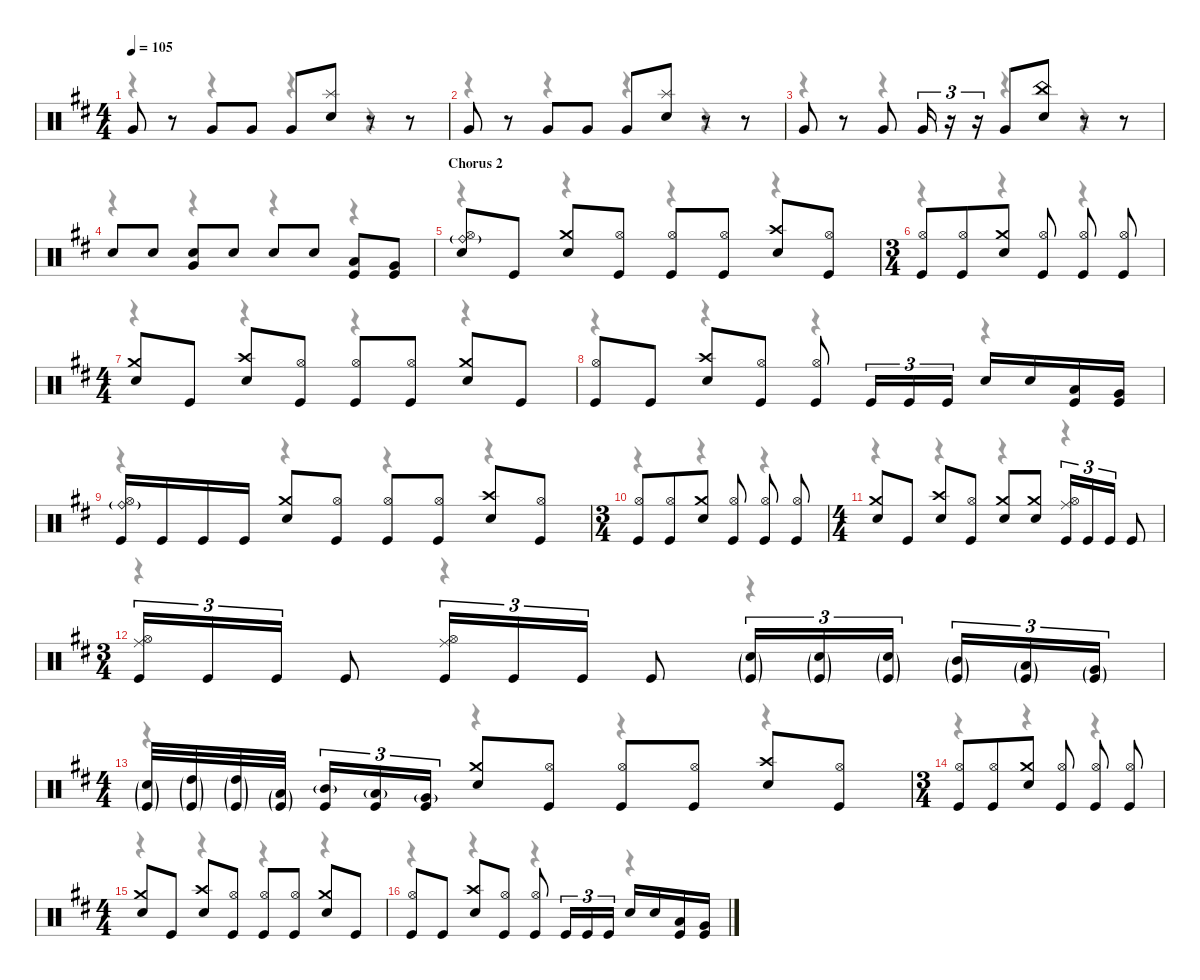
\defaultSystemsLayout 4
\hideDynamics
\bracketExtendMode nobrackets
\singleTrackTrackNamePolicy hidden
\multiTrackTrackNamePolicy hidden
\firstSystemTrackNameMode fullname
\firstSystemTrackNameOrientation horizontal
\otherSystemsTrackNameOrientation horizontal
\track ("Drums" "drm.") {instrument percussion}
\staff {score}
\articulation defaults
\voice
\ts (4 4)
\tempo 105
\clef neutral
\ks bminor "Very Low Tom (hit)"{acc forcenatural}.8{dy f beam Up}
r.8{beam Up} "Very Low Tom (hit)"{acc forcenatural}.8{beam Up} "Very Low Tom (hit)"{acc forcenatural}.8{dy mp beam Up} "Very Low Tom (hit)"{acc forcenatural}.8{dy f beam Up} ("Splash (hit)"{acc forcenatural} "Snare (hit) 2"{acc forcenatural}).8{beam Up} r.8{beam Up} r.8{beam Up} |
"Very Low Tom (hit)"{acc forcenatural}.8{beam Up} r.8{beam Up} "Very Low Tom (hit)"{acc forcenatural}.8{beam Up} "Very Low Tom (hit)"{acc forcenatural}.8{dy mp beam Up} "Very Low Tom (hit)"{acc forcenatural}.8{dy f beam Up} ("Splash (hit)"{acc forcenatural} "Snare (hit) 2"{acc forcenatural}).8{beam Up} r.8{beam Up} r.8{beam Up} |
"Very Low Tom (hit)"{acc forcenatural}.8{beam Up} r.8{beam Up} "Very Low Tom (hit)"{acc forcenatural}.8{beam Up} "Very Low Tom (hit)"{acc forcenatural}.16{tu (3 2) dy mp beam Up} r.16{tu (3 2) beam Up} r.16{tu (3 2) beam Up} "Very Low Tom (hit)"{acc forcenatural}.8{dy f beam Up} ("China (hit)"{acc forcenatural} "Snare (hit) 2"{acc forcenatural}).8{beam Up} r.8{beam Up} r.8{beam Up} |
"Snare (hit) 2"{acc forcenatural}.8{dy p beam Up} "Snare (hit) 2"{acc forcenatural}.8{dy mp beam Up} ("Snare (hit) 2"{acc forcenatural} "Very Low Tom (hit)"{acc forcenatural}).8{beam Up} "Snare (hit) 2"{acc forcenatural}.8{dy mf beam Up} "Snare (hit) 2"{acc forcenatural}.8{beam Up} "Snare (hit) 2"{acc forcenatural}.8{dy f beam Up} ("Low Tom (hit)"{acc forcenatural} "Kick (hit)"{acc forcenatural}).8{beam Up} ("Very Low Tom (hit)"{acc forcenatural} "Kick (hit)"{acc forcenatural}).8{beam Up} |
\section ("" "Chorus 2")
("Ride (bell)"{g acc forcenatural} "Hi-Hat (open)"{acc forcenatural} "Snare (hit) 2"{acc forcenatural}).8{dy mp beam Up} "Kick (hit)"{acc forcenatural}.8{dy f beam Up} ("Crash medium (hit)"{acc forcenatural} "Snare (hit) 2"{acc forcenatural}).8{dy mp beam Up} ("Hi-Hat (open)"{acc forcenatural} "Kick (hit)"{acc forcenatural}).8{dy pp beam Up} ("Hi-Hat (open)"{acc forcenatural} "Kick (hit)"{acc forcenatural}).8{dy mp beam Up} ("Hi-Hat (open)"{acc forcenatural} "Kick (hit)"{acc forcenatural}).8{dy pp beam Up} ("Crash high (hit)"{acc forcenatural} "Snare (hit) 2"{acc forcenatural}).8{dy mp beam Up} ("Hi-Hat (open)"{acc forcenatural} "Kick (hit)"{acc forcenatural}).8{dy pp beam Up} |
\ts (3 4)
\beaming (8 3 1 1 1)
("Hi-Hat (open)"{acc forcenatural} "Kick (hit)"{acc forcenatural}).8{dy mp beam Up} ("Hi-Hat (open)"{acc forcenatural} "Kick (hit)"{acc forcenatural}).8{dy pp beam Up} ("Crash medium (hit)"{acc forcenatural} "Snare (hit) 2"{acc forcenatural}).8{dy mp beam Up} ("Hi-Hat (open)"{acc forcenatural} "Kick (hit)"{acc forcenatural}).8{dy pp beam Up} ("Hi-Hat (open)"{acc forcenatural} "Kick (hit)"{acc forcenatural}).8{dy mp beam Up} ("Hi-Hat (open)"{acc forcenatural} "Kick (hit)"{acc forcenatural}).8{dy pp beam Up} |
\ts (4 4)
\beaming (8 2 2 2 2)
("Crash medium (hit)"{acc forcenatural} "Snare (hit) 2"{acc forcenatural}).8{dy mp beam Up} "Kick (hit)"{acc forcenatural}.8{dy f beam Up} ("Crash high (hit)"{acc forcenatural} "Snare (hit) 2"{acc forcenatural}).8{dy mp beam Up} ("Hi-Hat (open)"{acc forcenatural} "Kick (hit)"{acc forcenatural}).8{dy pp beam Up} ("Hi-Hat (open)"{acc forcenatural} "Kick (hit)"{acc forcenatural}).8{dy mp beam Up} ("Hi-Hat (open)"{acc forcenatural} "Kick (hit)"{acc forcenatural}).8{dy pp beam Up} ("Crash medium (hit)"{acc forcenatural} "Snare (hit) 2"{acc forcenatural}).8{dy mp beam Up} "Kick (hit)"{acc forcenatural}.8{dy f beam Up} |
("Hi-Hat (open)"{acc forcenatural} "Kick (hit)"{acc forcenatural}).8{dy mp beam Up} "Kick (hit)"{acc forcenatural}.8{dy f beam Up} ("Crash high (hit)"{acc forcenatural} "Snare (hit) 2"{acc forcenatural}).8{dy mp beam Up} ("Hi-Hat (open)"{acc forcenatural} "Kick (hit)"{acc forcenatural}).8{dy pp beam Up} ("Hi-Hat (open)"{acc forcenatural} "Kick (hit)"{acc forcenatural}).8{dy mp beam Up} "Kick (hit)"{acc forcenatural}.16{tu (3 2) dy f beam Up} "Kick (hit)"{acc forcenatural}.16{tu (3 2) beam Up} "Kick (hit)"{acc forcenatural}.16{tu (3 2) beam Up} "Snare (hit) 2"{acc forcenatural}.16{beam Up} "Snare (hit) 2"{acc forcenatural}.16{beam Up} ("Low Tom (hit)"{acc forcenatural} "Kick (hit)"{acc forcenatural}).16{dy mp beam Up} ("Very Low Tom (hit)"{acc forcenatural} "Kick (hit)"{acc forcenatural}).16{beam Up} |
("Ride (bell)"{g acc forcenatural} "Hi-Hat (open)"{acc forcenatural} "Kick (hit)"{acc forcenatural}).16{beam Up} "Kick (hit)"{acc forcenatural}.16{dy f beam Up} "Kick (hit)"{acc forcenatural}.16{beam Up} "Kick (hit)"{acc forcenatural}.16{beam Up} ("Crash medium (hit)"{acc forcenatural} "Snare (hit) 2"{acc forcenatural}).8{dy mp beam Up} ("Hi-Hat (open)"{acc forcenatural} "Kick (hit)"{acc forcenatural}).8{dy pp beam Up} ("Hi-Hat (open)"{acc forcenatural} "Kick (hit)"{acc forcenatural}).8{dy mp beam Up} ("Hi-Hat (open)"{acc forcenatural} "Kick (hit)"{acc forcenatural}).8{dy pp beam Up} ("Crash high (hit)"{acc forcenatural} "Snare (hit) 2"{acc forcenatural}).8{dy mp beam Up} ("Hi-Hat (open)"{acc forcenatural} "Kick (hit)"{acc forcenatural}).8{dy pp beam Up} |
\ts (3 4)
\beaming (8 3 1 1 1)
("Hi-Hat (open)"{acc forcenatural} "Kick (hit)"{acc forcenatural}).8{dy mp beam Up} ("Hi-Hat (open)"{acc forcenatural} "Kick (hit)"{acc forcenatural}).8{dy pp beam Up} ("Crash medium (hit)"{acc forcenatural} "Snare (hit) 2"{acc forcenatural}).8{dy mp beam Up} ("Hi-Hat (open)"{acc forcenatural} "Kick (hit)"{acc forcenatural}).8{dy pp beam Up} ("Hi-Hat (open)"{acc forcenatural} "Kick (hit)"{acc forcenatural}).8{dy mp beam Up} ("Hi-Hat (open)"{acc forcenatural} "Kick (hit)"{acc forcenatural}).8{dy pp beam Up} |
\ts (4 4)
\beaming (8 2 2 2 2)
("Crash medium (hit)"{acc forcenatural} "Snare (hit) 2"{acc forcenatural}).8{dy mp beam Up} "Kick (hit)"{acc forcenatural}.8{dy f beam Up} ("Crash high (hit)"{acc forcenatural} "Snare (hit) 2"{acc forcenatural}).8{dy mp beam Up} ("Hi-Hat (open)"{acc forcenatural} "Kick (hit)"{acc forcenatural}).8{dy pp beam Up} ("Crash medium (hit)"{acc forcenatural} "Snare (hit) 2"{acc forcenatural}).8{dy mp beam Up} ("Crash medium (hit)"{acc forcenatural} "Snare (hit) 2"{acc forcenatural}).8{beam Up} ("Ride (middle)"{acc forcenatural} "Hi-Hat (open)"{acc forcenatural} "Kick (hit)"{acc forcenatural}).16{tu (3 2) dy mf beam Up} "Kick (hit)"{acc forcenatural}.16{tu (3 2) dy f beam Up} "Kick (hit)"{acc forcenatural}.16{tu (3 2) beam Up} "Kick (hit)"{acc forcenatural}.8{beam Up} |
\ts (3 4)
\beaming (8 3 1 1 1)
("Ride (middle)"{acc forcenatural} "Hi-Hat (open)"{acc forcenatural} "Kick (hit)"{acc forcenatural}).16{tu (3 2) dy mf beam Up} "Kick (hit)"{acc forcenatural}.16{tu (3 2) dy f beam Up} "Kick (hit)"{acc forcenatural}.16{tu (3 2) beam Up} "Kick (hit)"{acc forcenatural}.8{beam Up} ("Ride (middle)"{acc forcenatural} "Hi-Hat (open)"{acc forcenatural} "Kick (hit)"{acc forcenatural}).16{tu (3 2) dy mf beam Up} "Kick (hit)"{acc forcenatural}.16{tu (3 2) dy f beam Up} "Kick (hit)"{acc forcenatural}.16{tu (3 2) beam Up} "Kick (hit)"{acc forcenatural}.8{beam Up} ("Snare (hit) 2"{g acc forcenatural} "Kick (hit)"{g acc forcenatural}).16{tu (3 2) beam Up} ("Snare (hit) 2"{g acc forcenatural} "Kick (hit)"{g acc forcenatural}).16{tu (3 2) beam Up} ("Snare (hit) 2"{g acc forcenatural} "Kick (hit)"{g acc forcenatural}).16{tu (3 2) beam Up} ("Mid Tom (hit)"{g acc forcenatural} "Kick (hit)"{g acc forcenatural}).16{tu (3 2) beam Up} ("Low Tom (hit)"{g acc forcenatural} "Kick (hit)"{g acc forcenatural}).16{tu (3 2) beam Up} ("Very Low Tom (hit)"{g acc forcenatural} "Kick (hit)"{g acc forcenatural}).16{tu (3 2) beam Up} |
\ts (4 4)
\beaming (8 2 2 2 2)
("Snare (hit) 2"{g acc forcenatural} "Kick (hit)"{g acc forcenatural}).32{dy mf beam Up} ("High Tom (hit)"{g acc forcenatural} "Kick (hit)"{g acc forcenatural}).32{beam Up} ("High Tom (hit)"{g acc forcenatural} "Kick (hit)"{g acc forcenatural}).32{beam Up} ("Low Tom (hit)"{g acc forcenatural} "Kick (hit)"{g acc forcenatural}).32{beam Up} ("Mid Tom (hit)"{g acc forcenatural} "Kick (hit)"{acc forcenatural}).16{tu (3 2) dy mp beam Up} ("Low Tom (hit)"{g acc forcenatural} "Kick (hit)"{acc forcenatural}).16{tu (3 2) dy mf beam Up} ("Very Low Tom (hit)"{g acc forcenatural} "Kick (hit)"{acc forcenatural}).16{tu (3 2) beam Up} ("Crash medium (hit)"{acc forcenatural} "Snare (hit) 2"{acc forcenatural}).8{dy mp beam Up} ("Hi-Hat (open)"{acc forcenatural} "Kick (hit)"{acc forcenatural}).8{dy pp beam Up} ("Hi-Hat (open)"{acc forcenatural} "Kick (hit)"{acc forcenatural}).8{dy mp beam Up} ("Hi-Hat (open)"{acc forcenatural} "Kick (hit)"{acc forcenatural}).8{dy pp beam Up} ("Crash high (hit)"{acc forcenatural} "Snare (hit) 2"{acc forcenatural}).8{dy mp beam Up} ("Hi-Hat (open)"{acc forcenatural} "Kick (hit)"{acc forcenatural}).8{dy pp beam Up} |
\ts (3 4)
\beaming (8 3 1 1 1)
("Hi-Hat (open)"{acc forcenatural} "Kick (hit)"{acc forcenatural}).8{dy mp beam Up} ("Hi-Hat (open)"{acc forcenatural} "Kick (hit)"{acc forcenatural}).8{dy pp beam Up} ("Crash medium (hit)"{acc forcenatural} "Snare (hit) 2"{acc forcenatural}).8{dy mp beam Up} ("Hi-Hat (open)"{acc forcenatural} "Kick (hit)"{acc forcenatural}).8{dy pp beam Up} ("Hi-Hat (open)"{acc forcenatural} "Kick (hit)"{acc forcenatural}).8{dy mp beam Up} ("Hi-Hat (open)"{acc forcenatural} "Kick (hit)"{acc forcenatural}).8{dy pp beam Up} |
\ts (4 4)
\beaming (8 2 2 2 2)
("Crash medium (hit)"{acc forcenatural} "Snare (hit) 2"{acc forcenatural}).8{dy mp beam Up} "Kick (hit)"{acc forcenatural}.8{dy f beam Up} ("Crash high (hit)"{acc forcenatural} "Snare (hit) 2"{acc forcenatural}).8{dy mp beam Up} ("Hi-Hat (open)"{acc forcenatural} "Kick (hit)"{acc forcenatural}).8{dy pp beam Up} ("Hi-Hat (open)"{acc forcenatural} "Kick (hit)"{acc forcenatural}).8{dy mp beam Up} ("Hi-Hat (open)"{acc forcenatural} "Kick (hit)"{acc forcenatural}).8{dy pp beam Up} ("Crash medium (hit)"{acc forcenatural} "Snare (hit) 2"{acc forcenatural}).8{dy mp beam Up} "Kick (hit)"{acc forcenatural}.8{dy f beam Up} |
("Hi-Hat (open)"{acc forcenatural} "Kick (hit)"{acc forcenatural}).8{dy mp beam Up} "Kick (hit)"{acc forcenatural}.8{dy f beam Up} ("Crash high (hit)"{acc forcenatural} "Snare (hit) 2"{acc forcenatural}).8{dy mp beam Up} ("Hi-Hat (open)"{acc forcenatural} "Kick (hit)"{acc forcenatural}).8{dy pp beam Up} ("Hi-Hat (open)"{acc forcenatural} "Kick (hit)"{acc forcenatural}).8{dy mp beam Up} "Kick (hit)"{acc forcenatural}.16{tu (3 2) dy f beam Up} "Kick (hit)"{acc forcenatural}.16{tu (3 2) beam Up} "Kick (hit)"{acc forcenatural}.16{tu (3 2) beam Up} "Snare (hit) 2"{acc forcenatural}.16{beam Up} "Snare (hit) 2"{acc forcenatural}.16{beam Up} ("Low Tom (hit)"{acc forcenatural} "Kick (hit)"{acc forcenatural}).16{dy mp beam Up} ("Very Low Tom (hit)"{acc forcenatural} "Kick (hit)"{acc forcenatural}).16{beam Up}
\voice
\clef neutral
\ottava regular
\simile none
\ks bminor
r.4{dy mf beam Down} r.4{beam Down} r.4{beam Down} r.4{beam Down} |
r.4{beam Down} r.4{beam Down} r.4{beam Down} r.4{beam Down} |
r.4{beam Down} r.4{beam Down} r.4{beam Down} r.4{beam Down} |
r.4{beam Down} r.4{beam Down} r.4{beam Down} r.4{beam Down} |
r.4{beam Down} r.4{beam Down} r.4{beam Down} r.4{beam Down} |
r.4{beam Down} r.4{beam Down} r.4{beam Down} |
r.4{beam Down} r.4{beam Down} r.4{beam Down} r.4{beam Down} |
r.4{beam Down} r.4{beam Down} r.4{beam Down} r.4{beam Down} |
r.4{beam Down} r.4{beam Down} r.4{beam Down} r.4{beam Down} |
r.4{beam Down} r.4{beam Down} r.4{beam Down} |
r.4{beam Down} r.4{beam Down} r.4{beam Down} r.4{beam Down} |
r.4{beam Down} r.4{beam Down} r.4{beam Down} |
r.4{beam Down} r.4{beam Down} r.4{beam Down} r.4{beam Down} |
r.4{beam Down} r.4{beam Down} r.4{beam Down} |
r.4{beam Down} r.4{beam Down} r.4{beam Down} r.4{beam Down} |
r.4{beam Down} r.4{beam Down} r.4{beam Down} r.4{beam Down}
